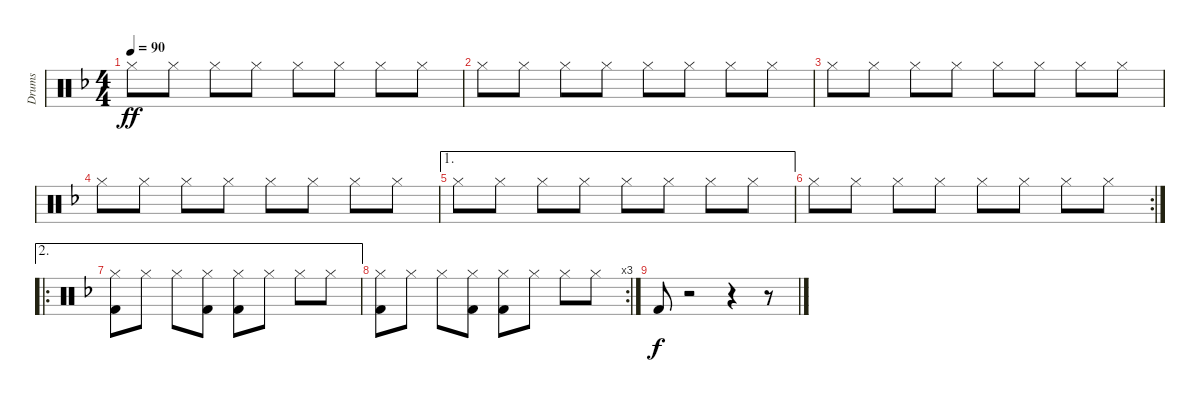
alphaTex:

\track ("Drums" "Drums") {instrument percussion}
\staff {score}
\articulation defaults
\ts (4 4)
\tempo 90
\clef neutral
\ks f "Hi-Hat (closed)".8{dy ff} "Hi-Hat (closed)".8 "Hi-Hat (closed)".8 "Hi-Hat (closed)".8 "Hi-Hat (closed)".8 "Hi-Hat (closed)".8 "Hi-Hat (closed)".8 "Hi-Hat (closed)".8
|
"Hi-Hat (closed)".8 "Hi-Hat (closed)".8 "Hi-Hat (closed)".8 "Hi-Hat (closed)".8 "Hi-Hat (closed)".8 "Hi-Hat (closed)".8 "Hi-Hat (closed)".8 "Hi-Hat (closed)".8 |
"Hi-Hat (closed)".8 "Hi-Hat (closed)".8 "Hi-Hat (closed)".8 "Hi-Hat (closed)".8 "Hi-Hat (closed)".8 "Hi-Hat (closed)".8 "Hi-Hat (closed)".8 "Hi-Hat (closed)".8 |
"Hi-Hat (closed)".8 "Hi-Hat (closed)".8 "Hi-Hat (closed)".8 "Hi-Hat (closed)".8 "Hi-Hat (closed)".8 "Hi-Hat (closed)".8 "Hi-Hat (closed)".8 "Hi-Hat (closed)".8 |
\ae 1 "Hi-Hat (closed)".8 "Hi-Hat (closed)".8 "Hi-Hat (closed)".8 "Hi-Hat (closed)".8 "Hi-Hat (closed)".8 "Hi-Hat (closed)".8 "Hi-Hat (closed)".8 "Hi-Hat (closed)".8
|
\rc 2 "Hi-Hat (closed)".8 "Hi-Hat (closed)".8 "Hi-Hat (closed)".8 "Hi-Hat (closed)".8 "Hi-Hat (closed)".8 "Hi-Hat (closed)".8 "Hi-Hat (closed)".8 "Hi-Hat (closed)".8
|
\ae 2
\ro
("Hi-Hat (closed)" "Kick (hit) 2").8 "Hi-Hat (closed)".8 "Hi-Hat (closed)".8 ("Hi-Hat (closed)" "Kick (hit) 2").8 ("Hi-Hat (closed)" "Kick (hit) 2").8 "Hi-Hat (closed)".8 "Hi-Hat (closed)".8 "Hi-Hat (closed)".8 |
\rc 3
("Hi-Hat (closed)" "Kick (hit) 2").8 "Hi-Hat (closed)".8 "Hi-Hat (closed)".8 ("Hi-Hat (closed)" "Kick (hit) 2").8 ("Hi-Hat (closed)" "Kick (hit) 2").8 "Hi-Hat (closed)".8 "Hi-Hat (closed)".8 "Hi-Hat (closed)".8 |
"Kick (hit) 2".8{dy f} r.2 r.4 r.8
